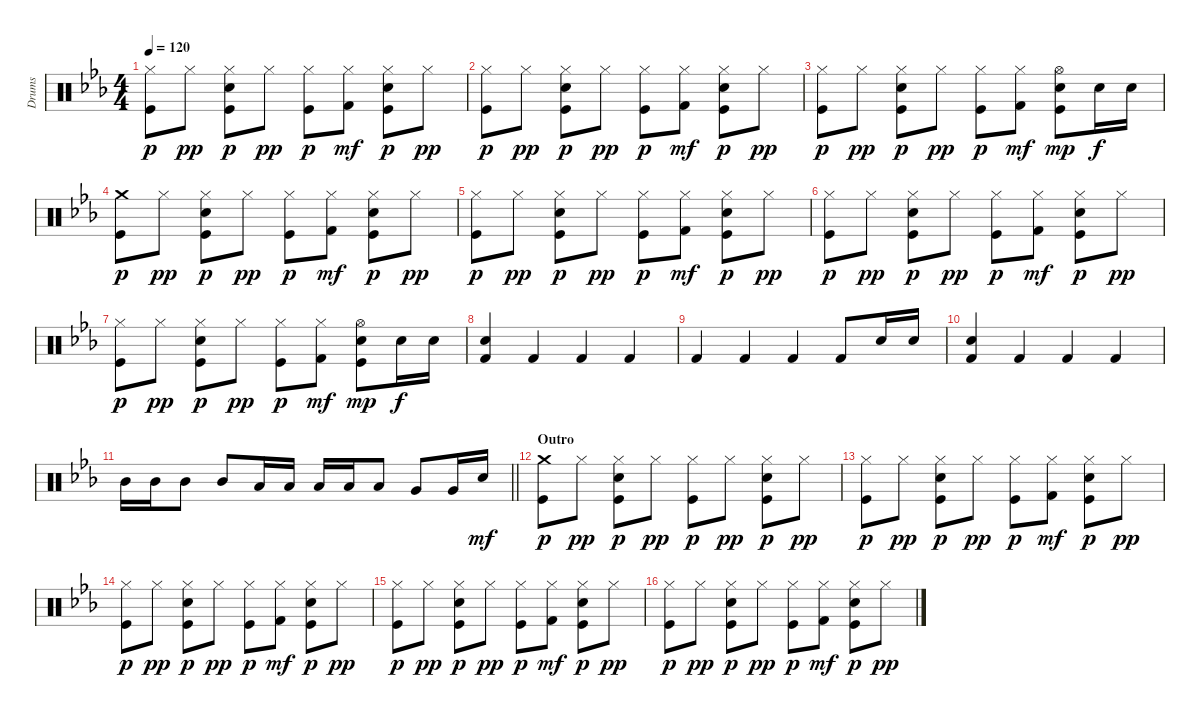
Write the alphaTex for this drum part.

\track ("Drums" "Drums") {instrument percussion}
\staff {score}
\articulation defaults
\ts (4 4)
\tempo 120
\clef neutral
\ks cminor
("Hi-Hat (closed)" "Kick (hit)").8{dy p} "Hi-Hat (closed)".8{dy pp} ("Hi-Hat (closed)" "Electric Snare (hit)" "Kick (hit)").8{dy p} "Hi-Hat (closed)".8{dy pp} ("Hi-Hat (closed)" "Kick (hit)").8{dy p} ("Hi-Hat (closed)" "Kick (hit) 2").8{dy mf} ("Hi-Hat (closed)" "Electric Snare (hit)" "Kick (hit)").8{dy p} "Hi-Hat (closed)".8{dy pp} |
("Hi-Hat (closed)" "Kick (hit)").8{dy p} "Hi-Hat (closed)".8{dy pp} ("Hi-Hat (closed)" "Electric Snare (hit)" "Kick (hit)").8{dy p} "Hi-Hat (closed)".8{dy pp} ("Hi-Hat (closed)" "Kick (hit)").8{dy p} ("Hi-Hat (closed)" "Kick (hit) 2").8{dy mf} ("Hi-Hat (closed)" "Electric Snare (hit)" "Kick (hit)").8{dy p} "Hi-Hat (closed)".8{dy pp} |
("Hi-Hat (closed)" "Kick (hit)").8{dy p} "Hi-Hat (closed)".8{dy pp} ("Hi-Hat (closed)" "Electric Snare (hit)" "Kick (hit)").8{dy p} "Hi-Hat (closed)".8{dy pp} ("Hi-Hat (closed)" "Kick (hit)").8{dy p} ("Hi-Hat (closed)" "Kick (hit) 2").8{dy mf} ("Hi-Hat (open)" "Electric Snare (hit)" "Kick (hit)").8{dy mp} "Electric Snare (hit)".16{dy f} "Electric Snare (hit)".16 |
("Crash medium (hit)" "Kick (hit)").8{dy p} "Hi-Hat (closed)".8{dy pp} ("Hi-Hat (closed)" "Electric Snare (hit)" "Kick (hit)").8{dy p} "Hi-Hat (closed)".8{dy pp} ("Hi-Hat (closed)" "Kick (hit)").8{dy p} ("Hi-Hat (closed)" "Kick (hit) 2").8{dy mf} ("Hi-Hat (closed)" "Electric Snare (hit)" "Kick (hit)").8{dy p} "Hi-Hat (closed)".8{dy pp} |
("Hi-Hat (closed)" "Kick (hit)").8{dy p} "Hi-Hat (closed)".8{dy pp} ("Hi-Hat (closed)" "Electric Snare (hit)" "Kick (hit)").8{dy p} "Hi-Hat (closed)".8{dy pp} ("Hi-Hat (closed)" "Kick (hit)").8{dy p} ("Hi-Hat (closed)" "Kick (hit) 2").8{dy mf} ("Hi-Hat (closed)" "Electric Snare (hit)" "Kick (hit)").8{dy p} "Hi-Hat (closed)".8{dy pp} |
("Hi-Hat (closed)" "Kick (hit)").8{dy p} "Hi-Hat (closed)".8{dy pp} ("Hi-Hat (closed)" "Electric Snare (hit)" "Kick (hit)").8{dy p} "Hi-Hat (closed)".8{dy pp} ("Hi-Hat (closed)" "Kick (hit)").8{dy p} ("Hi-Hat (closed)" "Kick (hit) 2").8{dy mf} ("Hi-Hat (closed)" "Electric Snare (hit)" "Kick (hit)").8{dy p} "Hi-Hat (closed)".8{dy pp} |
("Hi-Hat (closed)" "Kick (hit)").8{dy p} "Hi-Hat (closed)".8{dy pp} ("Hi-Hat (closed)" "Electric Snare (hit)" "Kick (hit)").8{dy p} "Hi-Hat (closed)".8{dy pp} ("Hi-Hat (closed)" "Kick (hit)").8{dy p} ("Hi-Hat (closed)" "Kick (hit) 2").8{dy mf} ("Hi-Hat (open)" "Electric Snare (hit)" "Kick (hit)").8{dy mp} "Electric Snare (hit)".16{dy f} "Electric Snare (hit)".16 |
("Kick (hit) 2" "Electric Snare (hit)").4 "Kick (hit) 2".4 "Kick (hit) 2".4 "Kick (hit) 2".4 |
"Kick (hit) 2".4 "Kick (hit) 2".4 "Kick (hit) 2".4 "Kick (hit) 2".8 "Electric Snare (hit)".16 "Electric Snare (hit)".16 |
("Kick (hit) 2" "Electric Snare (hit)").4 "Kick (hit) 2".4 "Kick (hit) 2".4 "Kick (hit) 2".4 |
\barLineRight lightlight "Mid Tom (hit)".16 "Mid Tom (hit)".16 "Mid Tom (hit)".8 "Mid Tom (hit)".8 "Low Tom (hit)".16 "Low Tom (hit)".16 "Low Tom (hit)".16 "Low Tom (hit)".16 "Low Tom (hit)".8 "Very Low Tom (hit)".8 "Very Low Tom (hit)".16 "Electric Snare (hit)".16{dy mf}
|
\section ("" "Outro")
("Crash medium (hit)" "Kick (hit)").8{dy p} "Hi-Hat (closed)".8{dy pp} ("Hi-Hat (closed)" "Electric Snare (hit)" "Kick (hit)").8{dy p} "Hi-Hat (closed)".8{dy pp} ("Hi-Hat (closed)" "Kick (hit)").8{dy p} "Hi-Hat (closed)".8{dy pp} ("Hi-Hat (closed)" "Electric Snare (hit)" "Kick (hit)").8{dy p} "Hi-Hat (closed)".8{dy pp} |
("Hi-Hat (closed)" "Kick (hit)").8{dy p} "Hi-Hat (closed)".8{dy pp} ("Hi-Hat (closed)" "Electric Snare (hit)" "Kick (hit)").8{dy p} "Hi-Hat (closed)".8{dy pp} ("Hi-Hat (closed)" "Kick (hit)").8{dy p} ("Hi-Hat (closed)" "Kick (hit) 2").8{dy mf} ("Hi-Hat (closed)" "Electric Snare (hit)" "Kick (hit)").8{dy p} "Hi-Hat (closed)".8{dy pp} |
("Hi-Hat (closed)" "Kick (hit)").8{dy p} "Hi-Hat (closed)".8{dy pp} ("Hi-Hat (closed)" "Electric Snare (hit)" "Kick (hit)").8{dy p} "Hi-Hat (closed)".8{dy pp} ("Hi-Hat (closed)" "Kick (hit)").8{dy p} ("Hi-Hat (closed)" "Kick (hit) 2").8{dy mf} ("Hi-Hat (closed)" "Electric Snare (hit)" "Kick (hit)").8{dy p} "Hi-Hat (closed)".8{dy pp} |
("Hi-Hat (closed)" "Kick (hit)").8{dy p} "Hi-Hat (closed)".8{dy pp} ("Hi-Hat (closed)" "Electric Snare (hit)" "Kick (hit)").8{dy p} "Hi-Hat (closed)".8{dy pp} ("Hi-Hat (closed)" "Kick (hit)").8{dy p} ("Hi-Hat (closed)" "Kick (hit) 2").8{dy mf} ("Hi-Hat (closed)" "Electric Snare (hit)" "Kick (hit)").8{dy p} "Hi-Hat (closed)".8{dy pp} |
("Hi-Hat (closed)" "Kick (hit)").8{dy p} "Hi-Hat (closed)".8{dy pp} ("Hi-Hat (closed)" "Electric Snare (hit)" "Kick (hit)").8{dy p} "Hi-Hat (closed)".8{dy pp} ("Hi-Hat (closed)" "Kick (hit)").8{dy p} ("Hi-Hat (closed)" "Kick (hit) 2").8{dy mf} ("Hi-Hat (closed)" "Electric Snare (hit)" "Kick (hit)").8{dy p} "Hi-Hat (closed)".8{dy pp}
